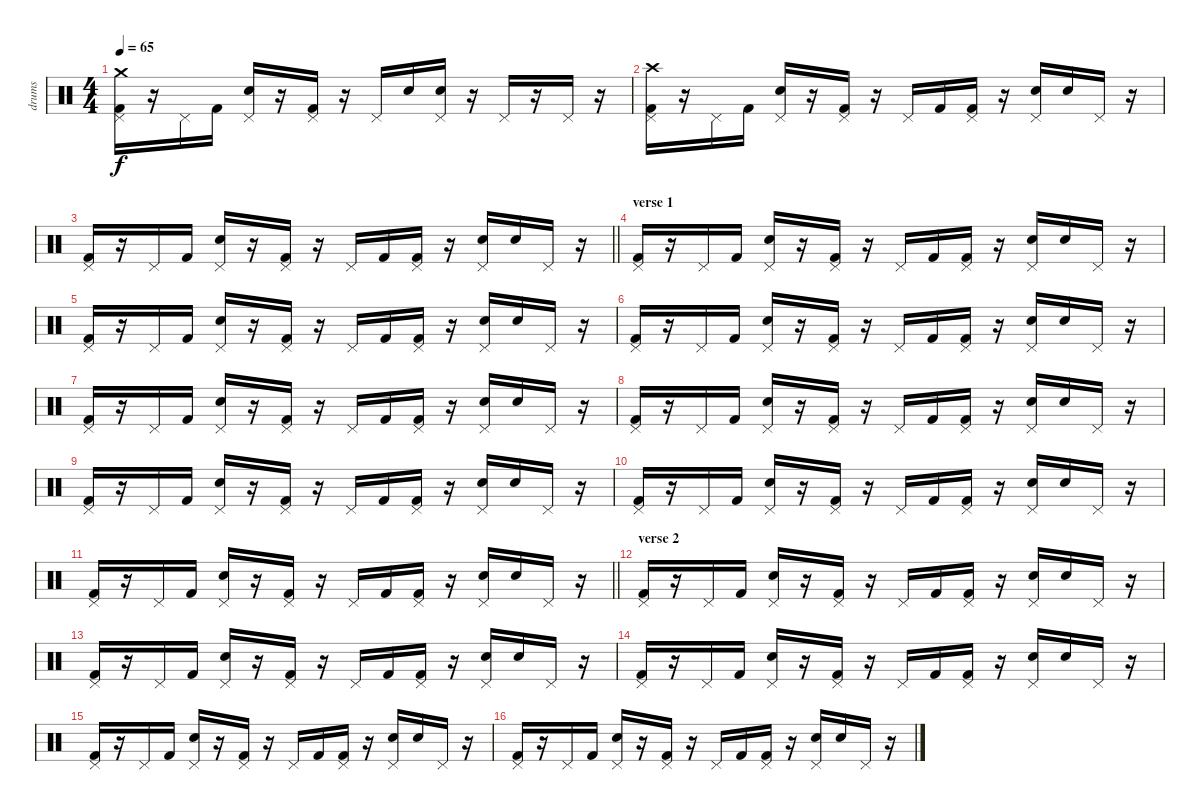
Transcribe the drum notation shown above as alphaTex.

\track ("drums" "drums") {instrument percussion}
\staff {score}
\articulation defaults
\ts (4 4)
\tempo 65
\clef neutral
\ks c
("Kick (hit) 2" "Pedal Hi-Hat (hit)" "Crash medium (hit)").16{dy f} r.16 "Pedal Hi-Hat (hit)".16 "Kick (hit) 2".16 ("Electric Snare (hit)" "Pedal Hi-Hat (hit)").16 r.16 ("Kick (hit) 2" "Pedal Hi-Hat (hit)").16 r.16 "Pedal Hi-Hat (hit)".16 "Electric Snare (hit)".16 ("Electric Snare (hit)" "Pedal Hi-Hat (hit)").16 r.16 "Pedal Hi-Hat (hit)".16 r.16 "Pedal Hi-Hat (hit)".16 r.16 |
("Kick (hit) 2" "Pedal Hi-Hat (hit)" "Crash high (hit)").16 r.16 "Pedal Hi-Hat (hit)".16 "Kick (hit) 2".16 ("Electric Snare (hit)" "Pedal Hi-Hat (hit)").16 r.16 ("Kick (hit) 2" "Pedal Hi-Hat (hit)").16 r.16 "Pedal Hi-Hat (hit)".16 "Kick (hit) 2".16 ("Kick (hit) 2" "Pedal Hi-Hat (hit)").16 r.16 ("Electric Snare (hit)" "Pedal Hi-Hat (hit)").16 "Electric Snare (hit)".16 "Pedal Hi-Hat (hit)".16 r.16 |
\barLineRight lightlight
("Kick (hit) 2" "Pedal Hi-Hat (hit)").16 r.16 "Pedal Hi-Hat (hit)".16 "Kick (hit) 2".16 ("Electric Snare (hit)" "Pedal Hi-Hat (hit)").16 r.16 ("Kick (hit) 2" "Pedal Hi-Hat (hit)").16 r.16 "Pedal Hi-Hat (hit)".16 "Kick (hit) 2".16 ("Kick (hit) 2" "Pedal Hi-Hat (hit)").16 r.16 ("Electric Snare (hit)" "Pedal Hi-Hat (hit)").16 "Electric Snare (hit)".16 "Pedal Hi-Hat (hit)".16 r.16 |
\section ("" "verse 1")
("Kick (hit) 2" "Pedal Hi-Hat (hit)").16 r.16 "Pedal Hi-Hat (hit)".16 "Kick (hit) 2".16 ("Electric Snare (hit)" "Pedal Hi-Hat (hit)").16 r.16 ("Kick (hit) 2" "Pedal Hi-Hat (hit)").16 r.16 "Pedal Hi-Hat (hit)".16 "Kick (hit) 2".16 ("Kick (hit) 2" "Pedal Hi-Hat (hit)").16 r.16 ("Electric Snare (hit)" "Pedal Hi-Hat (hit)").16 "Electric Snare (hit)".16 "Pedal Hi-Hat (hit)".16 r.16 |
("Kick (hit) 2" "Pedal Hi-Hat (hit)").16 r.16 "Pedal Hi-Hat (hit)".16 "Kick (hit) 2".16 ("Electric Snare (hit)" "Pedal Hi-Hat (hit)").16 r.16 ("Kick (hit) 2" "Pedal Hi-Hat (hit)").16 r.16 "Pedal Hi-Hat (hit)".16 "Kick (hit) 2".16 ("Kick (hit) 2" "Pedal Hi-Hat (hit)").16 r.16 ("Electric Snare (hit)" "Pedal Hi-Hat (hit)").16 "Electric Snare (hit)".16 "Pedal Hi-Hat (hit)".16 r.16 |
("Kick (hit) 2" "Pedal Hi-Hat (hit)").16 r.16 "Pedal Hi-Hat (hit)".16 "Kick (hit) 2".16 ("Electric Snare (hit)" "Pedal Hi-Hat (hit)").16 r.16 ("Kick (hit) 2" "Pedal Hi-Hat (hit)").16 r.16 "Pedal Hi-Hat (hit)".16 "Kick (hit) 2".16 ("Kick (hit) 2" "Pedal Hi-Hat (hit)").16 r.16 ("Electric Snare (hit)" "Pedal Hi-Hat (hit)").16 "Electric Snare (hit)".16 "Pedal Hi-Hat (hit)".16 r.16 |
("Kick (hit) 2" "Pedal Hi-Hat (hit)").16 r.16 "Pedal Hi-Hat (hit)".16 "Kick (hit) 2".16 ("Electric Snare (hit)" "Pedal Hi-Hat (hit)").16 r.16 ("Kick (hit) 2" "Pedal Hi-Hat (hit)").16 r.16 "Pedal Hi-Hat (hit)".16 "Kick (hit) 2".16 ("Kick (hit) 2" "Pedal Hi-Hat (hit)").16 r.16 ("Electric Snare (hit)" "Pedal Hi-Hat (hit)").16 "Electric Snare (hit)".16 "Pedal Hi-Hat (hit)".16 r.16 |
("Kick (hit) 2" "Pedal Hi-Hat (hit)").16 r.16 "Pedal Hi-Hat (hit)".16 "Kick (hit) 2".16 ("Electric Snare (hit)" "Pedal Hi-Hat (hit)").16 r.16 ("Kick (hit) 2" "Pedal Hi-Hat (hit)").16 r.16 "Pedal Hi-Hat (hit)".16 "Kick (hit) 2".16 ("Kick (hit) 2" "Pedal Hi-Hat (hit)").16 r.16 ("Electric Snare (hit)" "Pedal Hi-Hat (hit)").16 "Electric Snare (hit)".16 "Pedal Hi-Hat (hit)".16 r.16 |
("Kick (hit) 2" "Pedal Hi-Hat (hit)").16 r.16 "Pedal Hi-Hat (hit)".16 "Kick (hit) 2".16 ("Electric Snare (hit)" "Pedal Hi-Hat (hit)").16 r.16 ("Kick (hit) 2" "Pedal Hi-Hat (hit)").16 r.16 "Pedal Hi-Hat (hit)".16 "Kick (hit) 2".16 ("Kick (hit) 2" "Pedal Hi-Hat (hit)").16 r.16 ("Electric Snare (hit)" "Pedal Hi-Hat (hit)").16 "Electric Snare (hit)".16 "Pedal Hi-Hat (hit)".16 r.16 |
("Kick (hit) 2" "Pedal Hi-Hat (hit)").16 r.16 "Pedal Hi-Hat (hit)".16 "Kick (hit) 2".16 ("Electric Snare (hit)" "Pedal Hi-Hat (hit)").16 r.16 ("Kick (hit) 2" "Pedal Hi-Hat (hit)").16 r.16 "Pedal Hi-Hat (hit)".16 "Kick (hit) 2".16 ("Kick (hit) 2" "Pedal Hi-Hat (hit)").16 r.16 ("Electric Snare (hit)" "Pedal Hi-Hat (hit)").16 "Electric Snare (hit)".16 "Pedal Hi-Hat (hit)".16 r.16 |
\barLineRight lightlight
("Kick (hit) 2" "Pedal Hi-Hat (hit)").16 r.16 "Pedal Hi-Hat (hit)".16 "Kick (hit) 2".16 ("Electric Snare (hit)" "Pedal Hi-Hat (hit)").16 r.16 ("Kick (hit) 2" "Pedal Hi-Hat (hit)").16 r.16 "Pedal Hi-Hat (hit)".16 "Kick (hit) 2".16 ("Kick (hit) 2" "Pedal Hi-Hat (hit)").16 r.16 ("Electric Snare (hit)" "Pedal Hi-Hat (hit)").16 "Electric Snare (hit)".16 "Pedal Hi-Hat (hit)".16 r.16 |
\section ("" "verse 2")
("Kick (hit) 2" "Pedal Hi-Hat (hit)").16 r.16 "Pedal Hi-Hat (hit)".16 "Kick (hit) 2".16 ("Electric Snare (hit)" "Pedal Hi-Hat (hit)").16 r.16 ("Kick (hit) 2" "Pedal Hi-Hat (hit)").16 r.16 "Pedal Hi-Hat (hit)".16 "Kick (hit) 2".16 ("Kick (hit) 2" "Pedal Hi-Hat (hit)").16 r.16 ("Electric Snare (hit)" "Pedal Hi-Hat (hit)").16 "Electric Snare (hit)".16 "Pedal Hi-Hat (hit)".16 r.16 |
("Kick (hit) 2" "Pedal Hi-Hat (hit)").16 r.16 "Pedal Hi-Hat (hit)".16 "Kick (hit) 2".16 ("Electric Snare (hit)" "Pedal Hi-Hat (hit)").16 r.16 ("Kick (hit) 2" "Pedal Hi-Hat (hit)").16 r.16 "Pedal Hi-Hat (hit)".16 "Kick (hit) 2".16 ("Kick (hit) 2" "Pedal Hi-Hat (hit)").16 r.16 ("Electric Snare (hit)" "Pedal Hi-Hat (hit)").16 "Electric Snare (hit)".16 "Pedal Hi-Hat (hit)".16 r.16 |
("Kick (hit) 2" "Pedal Hi-Hat (hit)").16 r.16 "Pedal Hi-Hat (hit)".16 "Kick (hit) 2".16 ("Electric Snare (hit)" "Pedal Hi-Hat (hit)").16 r.16 ("Kick (hit) 2" "Pedal Hi-Hat (hit)").16 r.16 "Pedal Hi-Hat (hit)".16 "Kick (hit) 2".16 ("Kick (hit) 2" "Pedal Hi-Hat (hit)").16 r.16 ("Electric Snare (hit)" "Pedal Hi-Hat (hit)").16 "Electric Snare (hit)".16 "Pedal Hi-Hat (hit)".16 r.16 |
("Kick (hit) 2" "Pedal Hi-Hat (hit)").16 r.16 "Pedal Hi-Hat (hit)".16 "Kick (hit) 2".16 ("Electric Snare (hit)" "Pedal Hi-Hat (hit)").16 r.16 ("Kick (hit) 2" "Pedal Hi-Hat (hit)").16 r.16 "Pedal Hi-Hat (hit)".16 "Kick (hit) 2".16 ("Kick (hit) 2" "Pedal Hi-Hat (hit)").16 r.16 ("Electric Snare (hit)" "Pedal Hi-Hat (hit)").16 "Electric Snare (hit)".16 "Pedal Hi-Hat (hit)".16 r.16 |
("Kick (hit) 2" "Pedal Hi-Hat (hit)").16 r.16 "Pedal Hi-Hat (hit)".16 "Kick (hit) 2".16 ("Electric Snare (hit)" "Pedal Hi-Hat (hit)").16 r.16 ("Kick (hit) 2" "Pedal Hi-Hat (hit)").16 r.16 "Pedal Hi-Hat (hit)".16 "Kick (hit) 2".16 ("Kick (hit) 2" "Pedal Hi-Hat (hit)").16 r.16 ("Electric Snare (hit)" "Pedal Hi-Hat (hit)").16 "Electric Snare (hit)".16 "Pedal Hi-Hat (hit)".16 r.16
